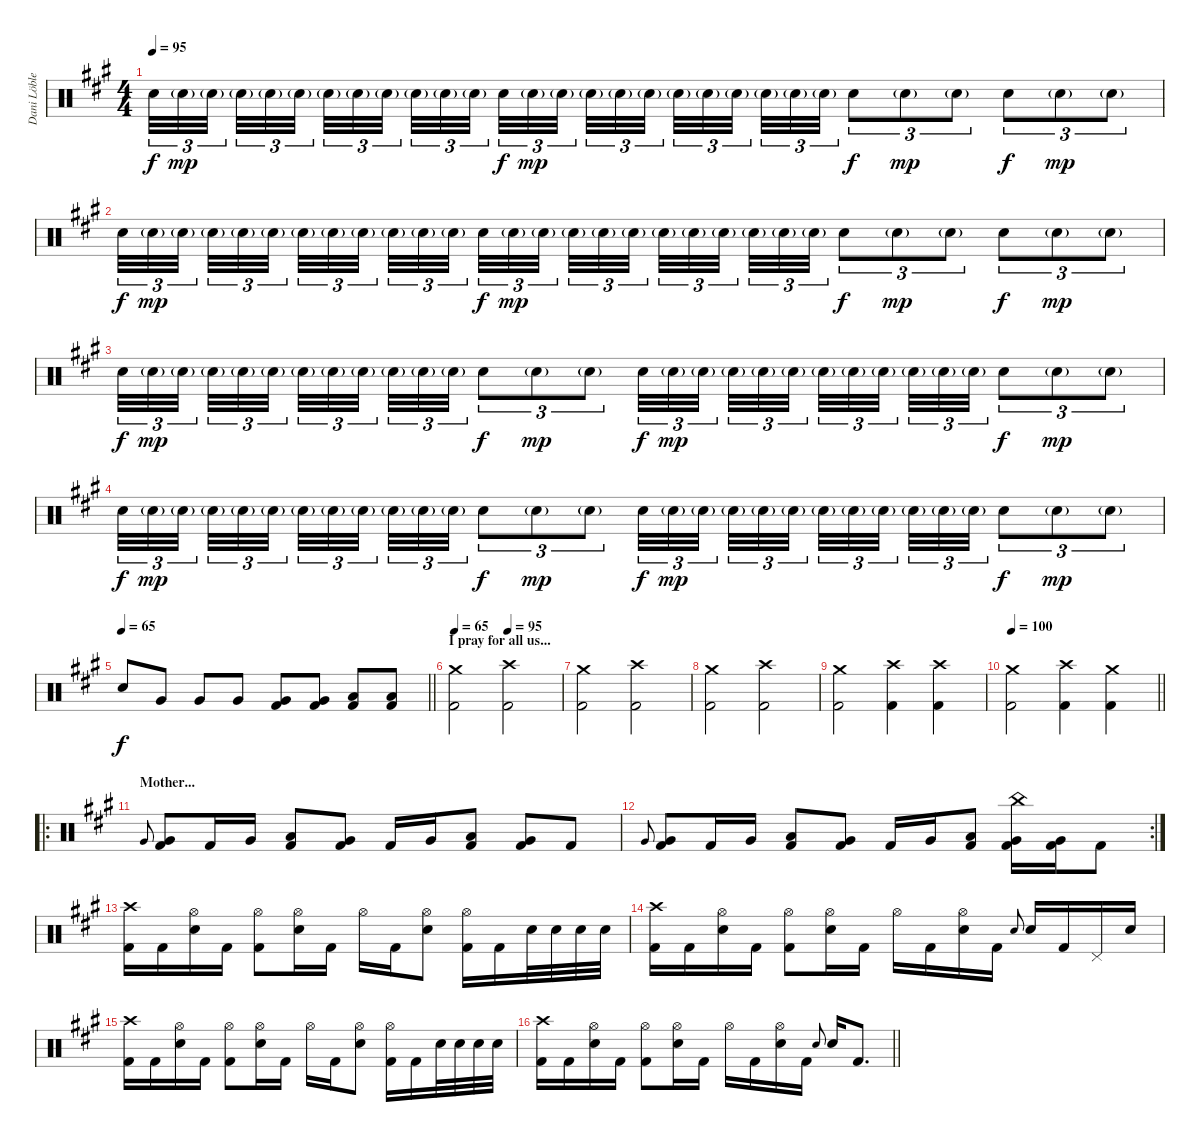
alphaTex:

\track ("Dani Löble" "Dani Löble") {instrument percussion}
\staff {score}
\articulation defaults
\ts (4 4)
\tempo 95
\clef neutral
\ks f#minor "Electric Snare (hit)".32{tu (3 2) dy f} "Electric Snare (hit)"{g}.32{tu (3 2) dy mp} "Electric Snare (hit)"{g}.32{tu (3 2) beam splitsecondary} "Electric Snare (hit)"{g}.32{tu (3 2)} "Electric Snare (hit)"{g}.32{tu (3 2)} "Electric Snare (hit)"{g}.32{tu (3 2) beam splitsecondary} "Electric Snare (hit)"{g}.32{tu (3 2)} "Electric Snare (hit)"{g}.32{tu (3 2)} "Electric Snare (hit)"{g}.32{tu (3 2) beam splitsecondary} "Electric Snare (hit)"{g}.32{tu (3 2)} "Electric Snare (hit)"{g}.32{tu (3 2)} "Electric Snare (hit)"{g}.32{tu (3 2)} "Electric Snare (hit)".32{tu (3 2) dy f} "Electric Snare (hit)"{g}.32{tu (3 2) dy mp} "Electric Snare (hit)"{g}.32{tu (3 2) beam splitsecondary} "Electric Snare (hit)"{g}.32{tu (3 2)} "Electric Snare (hit)"{g}.32{tu (3 2)} "Electric Snare (hit)"{g}.32{tu (3 2) beam splitsecondary} "Electric Snare (hit)"{g}.32{tu (3 2)} "Electric Snare (hit)"{g}.32{tu (3 2)} "Electric Snare (hit)"{g}.32{tu (3 2) beam splitsecondary} "Electric Snare (hit)"{g}.32{tu (3 2)} "Electric Snare (hit)"{g}.32{tu (3 2)} "Electric Snare (hit)"{g}.32{tu (3 2)} "Electric Snare (hit)".8{tu (3 2) dy f} "Electric Snare (hit)"{g}.8{tu (3 2) dy mp} "Electric Snare (hit)"{g}.8{tu (3 2)} "Electric Snare (hit)".8{tu (3 2) dy f} "Electric Snare (hit)"{g}.8{tu (3 2) dy mp} "Electric Snare (hit)"{g}.8{tu (3 2)}
|
"Electric Snare (hit)".32{tu (3 2) dy f} "Electric Snare (hit)"{g}.32{tu (3 2) dy mp} "Electric Snare (hit)"{g}.32{tu (3 2) beam splitsecondary} "Electric Snare (hit)"{g}.32{tu (3 2)} "Electric Snare (hit)"{g}.32{tu (3 2)} "Electric Snare (hit)"{g}.32{tu (3 2) beam splitsecondary} "Electric Snare (hit)"{g}.32{tu (3 2)} "Electric Snare (hit)"{g}.32{tu (3 2)} "Electric Snare (hit)"{g}.32{tu (3 2) beam splitsecondary} "Electric Snare (hit)"{g}.32{tu (3 2)} "Electric Snare (hit)"{g}.32{tu (3 2)} "Electric Snare (hit)"{g}.32{tu (3 2)} "Electric Snare (hit)".32{tu (3 2) dy f} "Electric Snare (hit)"{g}.32{tu (3 2) dy mp} "Electric Snare (hit)"{g}.32{tu (3 2) beam splitsecondary} "Electric Snare (hit)"{g}.32{tu (3 2)} "Electric Snare (hit)"{g}.32{tu (3 2)} "Electric Snare (hit)"{g}.32{tu (3 2) beam splitsecondary} "Electric Snare (hit)"{g}.32{tu (3 2)} "Electric Snare (hit)"{g}.32{tu (3 2)} "Electric Snare (hit)"{g}.32{tu (3 2) beam splitsecondary} "Electric Snare (hit)"{g}.32{tu (3 2)} "Electric Snare (hit)"{g}.32{tu (3 2)} "Electric Snare (hit)"{g}.32{tu (3 2)} "Electric Snare (hit)".8{tu (3 2) dy f} "Electric Snare (hit)"{g}.8{tu (3 2) dy mp} "Electric Snare (hit)"{g}.8{tu (3 2)} "Electric Snare (hit)".8{tu (3 2) dy f} "Electric Snare (hit)"{g}.8{tu (3 2) dy mp} "Electric Snare (hit)"{g}.8{tu (3 2)} |
"Electric Snare (hit)".32{tu (3 2) dy f} "Electric Snare (hit)"{g}.32{tu (3 2) dy mp} "Electric Snare (hit)"{g}.32{tu (3 2) beam splitsecondary} "Electric Snare (hit)"{g}.32{tu (3 2)} "Electric Snare (hit)"{g}.32{tu (3 2)} "Electric Snare (hit)"{g}.32{tu (3 2) beam splitsecondary} "Electric Snare (hit)"{g}.32{tu (3 2)} "Electric Snare (hit)"{g}.32{tu (3 2)} "Electric Snare (hit)"{g}.32{tu (3 2) beam splitsecondary} "Electric Snare (hit)"{g}.32{tu (3 2)} "Electric Snare (hit)"{g}.32{tu (3 2)} "Electric Snare (hit)"{g}.32{tu (3 2)} "Electric Snare (hit)".8{tu (3 2) dy f} "Electric Snare (hit)"{g}.8{tu (3 2) dy mp} "Electric Snare (hit)"{g}.8{tu (3 2)} "Electric Snare (hit)".32{tu (3 2) dy f} "Electric Snare (hit)"{g}.32{tu (3 2) dy mp} "Electric Snare (hit)"{g}.32{tu (3 2) beam splitsecondary} "Electric Snare (hit)"{g}.32{tu (3 2)} "Electric Snare (hit)"{g}.32{tu (3 2)} "Electric Snare (hit)"{g}.32{tu (3 2) beam splitsecondary} "Electric Snare (hit)"{g}.32{tu (3 2)} "Electric Snare (hit)"{g}.32{tu (3 2)} "Electric Snare (hit)"{g}.32{tu (3 2) beam splitsecondary} "Electric Snare (hit)"{g}.32{tu (3 2)} "Electric Snare (hit)"{g}.32{tu (3 2)} "Electric Snare (hit)"{g}.32{tu (3 2)} "Electric Snare (hit)".8{tu (3 2) dy f} "Electric Snare (hit)"{g}.8{tu (3 2) dy mp} "Electric Snare (hit)"{g}.8{tu (3 2)} |
"Electric Snare (hit)".32{tu (3 2) dy f} "Electric Snare (hit)"{g}.32{tu (3 2) dy mp} "Electric Snare (hit)"{g}.32{tu (3 2) beam splitsecondary} "Electric Snare (hit)"{g}.32{tu (3 2)} "Electric Snare (hit)"{g}.32{tu (3 2)} "Electric Snare (hit)"{g}.32{tu (3 2) beam splitsecondary} "Electric Snare (hit)"{g}.32{tu (3 2)} "Electric Snare (hit)"{g}.32{tu (3 2)} "Electric Snare (hit)"{g}.32{tu (3 2) beam splitsecondary} "Electric Snare (hit)"{g}.32{tu (3 2)} "Electric Snare (hit)"{g}.32{tu (3 2)} "Electric Snare (hit)"{g}.32{tu (3 2)} "Electric Snare (hit)".8{tu (3 2) dy f} "Electric Snare (hit)"{g}.8{tu (3 2) dy mp} "Electric Snare (hit)"{g}.8{tu (3 2)} "Electric Snare (hit)".32{tu (3 2) dy f} "Electric Snare (hit)"{g}.32{tu (3 2) dy mp} "Electric Snare (hit)"{g}.32{tu (3 2) beam splitsecondary} "Electric Snare (hit)"{g}.32{tu (3 2)} "Electric Snare (hit)"{g}.32{tu (3 2)} "Electric Snare (hit)"{g}.32{tu (3 2) beam splitsecondary} "Electric Snare (hit)"{g}.32{tu (3 2)} "Electric Snare (hit)"{g}.32{tu (3 2)} "Electric Snare (hit)"{g}.32{tu (3 2) beam splitsecondary} "Electric Snare (hit)"{g}.32{tu (3 2)} "Electric Snare (hit)"{g}.32{tu (3 2)} "Electric Snare (hit)"{g}.32{tu (3 2)} "Electric Snare (hit)".8{tu (3 2) dy f} "Electric Snare (hit)"{g}.8{tu (3 2) dy mp} "Electric Snare (hit)"{g}.8{tu (3 2)} |
\tempo 65
\barLineRight lightlight "Electric Snare (hit)".8{dy f volume 13} "Very Low Tom (hit)".8 "Very Low Tom (hit)".8 "Very Low Tom (hit)".8
("Very Low Tom (hit)" "Kick (hit) 2").8 ("Very Low Tom (hit)" "Kick (hit) 2").8 ("Low Floor Tom (hit)" "Kick (hit) 2").8 ("Low Floor Tom (hit)" "Kick (hit) 2").8 |
\section ("" "I pray for all us...")
\tempo 65
\tempo (95 0.5)
("Crash medium (hit)" "Kick (hit) 2").2 ("Crash high (hit)" "Kick (hit) 2").2 |
("Crash medium (hit)" "Kick (hit) 2").2 ("Crash high (hit)" "Kick (hit) 2").2 |
("Crash medium (hit)" "Kick (hit) 2").2 ("Crash high (hit)" "Kick (hit) 2").2 |
("Crash medium (hit)" "Kick (hit) 2").2 ("Crash high (hit)" "Kick (hit) 2").4 ("Crash high (hit)" "Kick (hit) 2").4 |
\tempo 100
\barLineRight lightlight
("Crash medium (hit)" "Kick (hit) 2").2 ("Crash high (hit)" "Kick (hit) 2").4 ("Crash medium (hit)" "Kick (hit) 2").4 |
\ro
\section ("" "Mother...")
"Very Low Tom (hit)".8{gr onbeat} ("Very Low Tom (hit)" "Kick (hit) 2").8 "Kick (hit) 2".16 "Very Low Tom (hit)".16 ("Low Floor Tom (hit)" "Kick (hit) 2").8 ("Very Low Tom (hit)" "Kick (hit) 2").8 "Kick (hit) 2".16 "Very Low Tom (hit)".16 ("Low Floor Tom (hit)" "Kick (hit) 2").8 ("Very Low Tom (hit)" "Kick (hit) 2").8 "Kick (hit) 2".8 |
\rc 2 "Very Low Tom (hit)".8{gr onbeat}
("Very Low Tom (hit)" "Kick (hit) 2").8 "Kick (hit) 2".16 "Very Low Tom (hit)".16 ("Low Floor Tom (hit)" "Kick (hit) 2").8 ("Very Low Tom (hit)" "Kick (hit) 2").8 "Kick (hit) 2".16 "Very Low Tom (hit)".16 ("Low Floor Tom (hit)" "Kick (hit) 2").8 ("China (hit)" "Very Low Tom (hit)" "Kick (hit) 2").16 ("Very Low Tom (hit)" "Kick (hit) 2").16 "Kick (hit) 2".8 |
("Crash high (hit)" "Kick (hit) 2").16 "Kick (hit) 2".16 ("Hi-Hat (open)" "Snare (hit) 2").16 "Kick (hit) 2".16 ("Hi-Hat (open)" "Kick (hit) 2").8 ("Hi-Hat (open)" "Snare (hit) 2").16 "Kick (hit) 2".16 "Hi-Hat (open)".16 "Kick (hit) 2".16 ("Hi-Hat (open)" "Snare (hit) 2").8 ("Hi-Hat (open)" "Kick (hit) 2").16 "Kick (hit) 2".16 "Snare (hit) 2".32 "Snare (hit) 2".32 "Snare (hit) 2".32 "Snare (hit) 2".32 |
("Crash high (hit)" "Kick (hit) 2").16 "Kick (hit) 2".16 ("Hi-Hat (open)" "Snare (hit) 2").16 "Kick (hit) 2".16 ("Hi-Hat (open)" "Kick (hit) 2").8 ("Hi-Hat (open)" "Snare (hit) 2").16 "Kick (hit) 2".16 "Hi-Hat (open)".16 "Kick (hit) 2".16 ("Hi-Hat (open)" "Snare (hit) 2").16 "Kick (hit) 2".16 "Snare (hit) 2".8{gr onbeat} "Snare (hit) 2".16 "Kick (hit) 2".16 "Pedal Hi-Hat (hit)".16 "Snare (hit) 2".16 |
("Crash high (hit)" "Kick (hit) 2").16 "Kick (hit) 2".16 ("Hi-Hat (open)" "Snare (hit) 2").16 "Kick (hit) 2".16 ("Hi-Hat (open)" "Kick (hit) 2").8 ("Hi-Hat (open)" "Snare (hit) 2").16 "Kick (hit) 2".16 "Hi-Hat (open)".16 "Kick (hit) 2".16 ("Hi-Hat (open)" "Snare (hit) 2").8 ("Hi-Hat (open)" "Kick (hit) 2").16 "Kick (hit) 2".16 "Snare (hit) 2".32 "Snare (hit) 2".32 "Snare (hit) 2".32 "Snare (hit) 2".32 |
\barLineRight lightlight
("Crash high (hit)" "Kick (hit) 2").16 "Kick (hit) 2".16 ("Hi-Hat (open)" "Snare (hit) 2").16 "Kick (hit) 2".16 ("Hi-Hat (open)" "Kick (hit) 2").8 ("Hi-Hat (open)" "Snare (hit) 2").16 "Kick (hit) 2".16 "Hi-Hat (open)".16 "Kick (hit) 2".16 ("Hi-Hat (open)" "Snare (hit) 2").16 "Kick (hit) 2".16 "Snare (hit) 2".8{gr onbeat} "Snare (hit) 2".16 "Kick (hit) 2".8{d}
